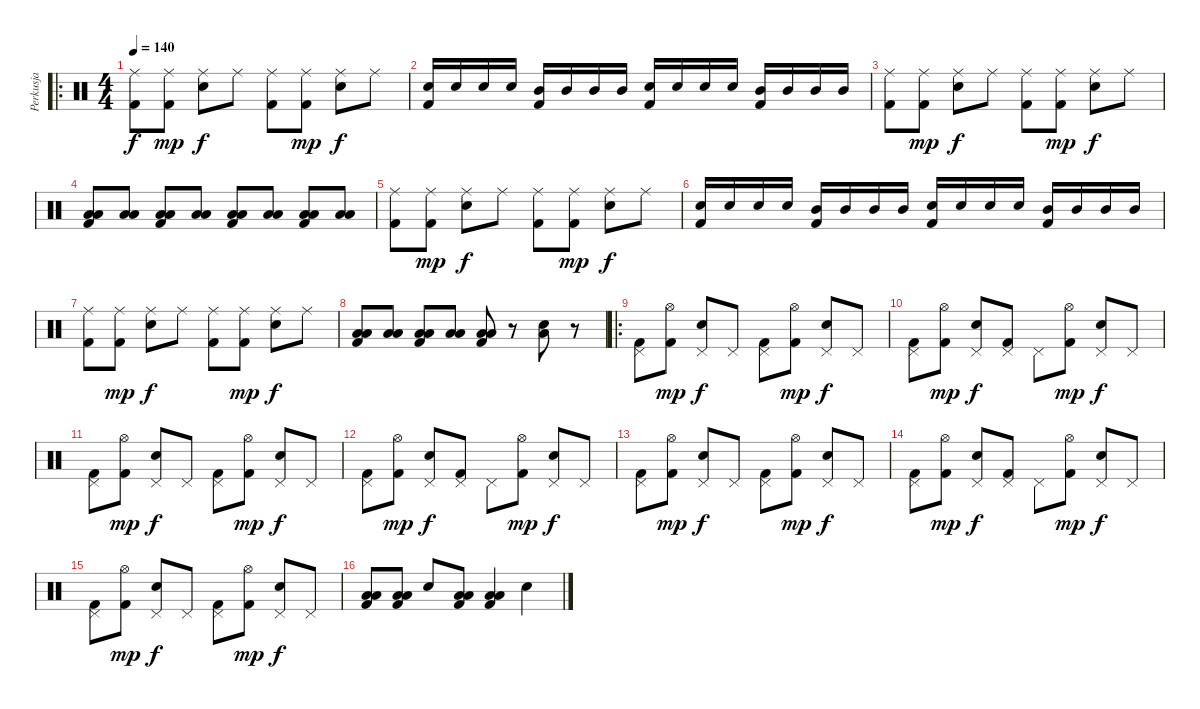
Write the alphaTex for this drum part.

\track ("Perkusja" "Perkusja") {instrument percussion}
\staff {score}
\articulation defaults
\ro
\ts (4 4)
\tempo 140
\clef neutral
\ks c
("Ride (middle)" "Kick (hit) 2").8{dy f} ("Ride (middle)" "Kick (hit) 2").8{dy mp} ("Ride (middle)" "Snare (hit) 2").8{dy f} "Ride (middle)".8 ("Ride (middle)" "Kick (hit) 2").8 ("Ride (middle)" "Kick (hit) 2").8{dy mp} ("Ride (middle)" "Snare (hit) 2").8{dy f} "Ride (middle)".8 |
("Snare (hit) 2" "Kick (hit) 2").16 "Snare (hit) 2".16 "Snare (hit) 2".16 "Snare (hit) 2".16 ("Mid Tom (hit)" "Kick (hit) 2").16 "Mid Tom (hit)".16 "Mid Tom (hit)".16 "Mid Tom (hit)".16 ("Snare (hit) 2" "Kick (hit) 2").16 "Snare (hit) 2".16 "Snare (hit) 2".16 "Snare (hit) 2".16 ("Mid Tom (hit)" "Kick (hit) 2").16 "Mid Tom (hit)".16 "Mid Tom (hit)".16 "Mid Tom (hit)".16 |
("Ride (middle)" "Kick (hit) 2").8 ("Ride (middle)" "Kick (hit) 2").8{dy mp} ("Ride (middle)" "Snare (hit) 2").8{dy f} "Ride (middle)".8 ("Ride (middle)" "Kick (hit) 2").8 ("Ride (middle)" "Kick (hit) 2").8{dy mp} ("Ride (middle)" "Snare (hit) 2").8{dy f} "Ride (middle)".8 |
("Low Floor Tom (hit)" "Low Tom (hit)" "Kick (hit) 2").8 ("Low Floor Tom (hit)" "Low Tom (hit)").8 ("Low Floor Tom (hit)" "Low Tom (hit)" "Kick (hit) 2").8 ("Low Floor Tom (hit)" "Low Tom (hit)").8 ("Low Floor Tom (hit)" "Low Tom (hit)" "Kick (hit) 2").8 ("Low Floor Tom (hit)" "Low Tom (hit)").8 ("Low Floor Tom (hit)" "Low Tom (hit)" "Kick (hit) 2").8 ("Low Floor Tom (hit)" "Low Tom (hit)").8 |
("Ride (middle)" "Kick (hit) 2").8 ("Ride (middle)" "Kick (hit) 2").8{dy mp} ("Ride (middle)" "Snare (hit) 2").8{dy f} "Ride (middle)".8 ("Ride (middle)" "Kick (hit) 2").8 ("Ride (middle)" "Kick (hit) 2").8{dy mp} ("Ride (middle)" "Snare (hit) 2").8{dy f} "Ride (middle)".8 |
("Snare (hit) 2" "Kick (hit) 2").16 "Snare (hit) 2".16 "Snare (hit) 2".16 "Snare (hit) 2".16 ("Mid Tom (hit)" "Kick (hit) 2").16 "Mid Tom (hit)".16 "Mid Tom (hit)".16 "Mid Tom (hit)".16 ("Snare (hit) 2" "Kick (hit) 2").16 "Snare (hit) 2".16 "Snare (hit) 2".16 "Snare (hit) 2".16 ("Mid Tom (hit)" "Kick (hit) 2").16 "Mid Tom (hit)".16 "Mid Tom (hit)".16 "Mid Tom (hit)".16 |
("Ride (middle)" "Kick (hit) 2").8 ("Ride (middle)" "Kick (hit) 2").8{dy mp} ("Ride (middle)" "Snare (hit) 2").8{dy f} "Ride (middle)".8 ("Ride (middle)" "Kick (hit) 2").8 ("Ride (middle)" "Kick (hit) 2").8{dy mp} ("Ride (middle)" "Snare (hit) 2").8{dy f} "Ride (middle)".8 |
("Low Floor Tom (hit)" "Low Tom (hit)" "Kick (hit) 2").8 ("Low Floor Tom (hit)" "Low Tom (hit)").8 ("Low Floor Tom (hit)" "Low Tom (hit)" "Kick (hit) 2").8 ("Low Floor Tom (hit)" "Low Tom (hit)").8 ("Low Floor Tom (hit)" "Low Tom (hit)" "Kick (hit) 2").8 r.8 ("Low Floor Tom (hit)" "Snare (hit) 2").8 r.8 |
\ro
("Pedal Hi-Hat (hit)" "Kick (hit) 2").8 ("Hi-Hat (open)" "Kick (hit) 2").8{dy mp} ("Pedal Hi-Hat (hit)" "Snare (hit) 2").8{dy f} "Pedal Hi-Hat (hit)".8 ("Pedal Hi-Hat (hit)" "Kick (hit) 2").8 ("Hi-Hat (open)" "Kick (hit) 2").8{dy mp} ("Pedal Hi-Hat (hit)" "Snare (hit) 2").8{dy f} "Pedal Hi-Hat (hit)".8 |
("Pedal Hi-Hat (hit)" "Kick (hit) 2").8 ("Hi-Hat (open)" "Kick (hit) 2").8{dy mp} ("Pedal Hi-Hat (hit)" "Snare (hit) 2").8{dy f} ("Pedal Hi-Hat (hit)" "Kick (hit) 2").8 "Pedal Hi-Hat (hit)".8 ("Hi-Hat (open)" "Kick (hit) 2").8{dy mp} ("Pedal Hi-Hat (hit)" "Snare (hit) 2").8{dy f} "Pedal Hi-Hat (hit)".8 |
("Pedal Hi-Hat (hit)" "Kick (hit) 2").8 ("Hi-Hat (open)" "Kick (hit) 2").8{dy mp} ("Pedal Hi-Hat (hit)" "Snare (hit) 2").8{dy f} "Pedal Hi-Hat (hit)".8 ("Pedal Hi-Hat (hit)" "Kick (hit) 2").8 ("Hi-Hat (open)" "Kick (hit) 2").8{dy mp} ("Pedal Hi-Hat (hit)" "Snare (hit) 2").8{dy f} "Pedal Hi-Hat (hit)".8 |
("Pedal Hi-Hat (hit)" "Kick (hit) 2").8 ("Hi-Hat (open)" "Kick (hit) 2").8{dy mp} ("Pedal Hi-Hat (hit)" "Snare (hit) 2").8{dy f} ("Pedal Hi-Hat (hit)" "Kick (hit) 2").8 "Pedal Hi-Hat (hit)".8 ("Hi-Hat (open)" "Kick (hit) 2").8{dy mp} ("Pedal Hi-Hat (hit)" "Snare (hit) 2").8{dy f} "Pedal Hi-Hat (hit)".8 |
("Pedal Hi-Hat (hit)" "Kick (hit) 2").8 ("Hi-Hat (open)" "Kick (hit) 2").8{dy mp} ("Pedal Hi-Hat (hit)" "Snare (hit) 2").8{dy f} "Pedal Hi-Hat (hit)".8 ("Pedal Hi-Hat (hit)" "Kick (hit) 2").8 ("Hi-Hat (open)" "Kick (hit) 2").8{dy mp} ("Pedal Hi-Hat (hit)" "Snare (hit) 2").8{dy f} "Pedal Hi-Hat (hit)".8 |
("Pedal Hi-Hat (hit)" "Kick (hit) 2").8 ("Hi-Hat (open)" "Kick (hit) 2").8{dy mp} ("Pedal Hi-Hat (hit)" "Snare (hit) 2").8{dy f} ("Pedal Hi-Hat (hit)" "Kick (hit) 2").8 "Pedal Hi-Hat (hit)".8 ("Hi-Hat (open)" "Kick (hit) 2").8{dy mp} ("Pedal Hi-Hat (hit)" "Snare (hit) 2").8{dy f} "Pedal Hi-Hat (hit)".8 |
("Pedal Hi-Hat (hit)" "Kick (hit) 2").8 ("Hi-Hat (open)" "Kick (hit) 2").8{dy mp} ("Pedal Hi-Hat (hit)" "Snare (hit) 2").8{dy f} "Pedal Hi-Hat (hit)".8 ("Pedal Hi-Hat (hit)" "Kick (hit) 2").8 ("Hi-Hat (open)" "Kick (hit) 2").8{dy mp} ("Pedal Hi-Hat (hit)" "Snare (hit) 2").8{dy f} "Pedal Hi-Hat (hit)".8 |
("Low Floor Tom (hit)" "Low Tom (hit)" "Kick (hit) 2").8 ("Low Floor Tom (hit)" "Low Tom (hit)" "Kick (hit) 2").8 "Snare (hit) 2".8 ("Low Floor Tom (hit)" "Low Tom (hit)" "Kick (hit) 2").8 ("Low Floor Tom (hit)" "Low Tom (hit)" "Kick (hit) 2").4 "Snare (hit) 2".4
